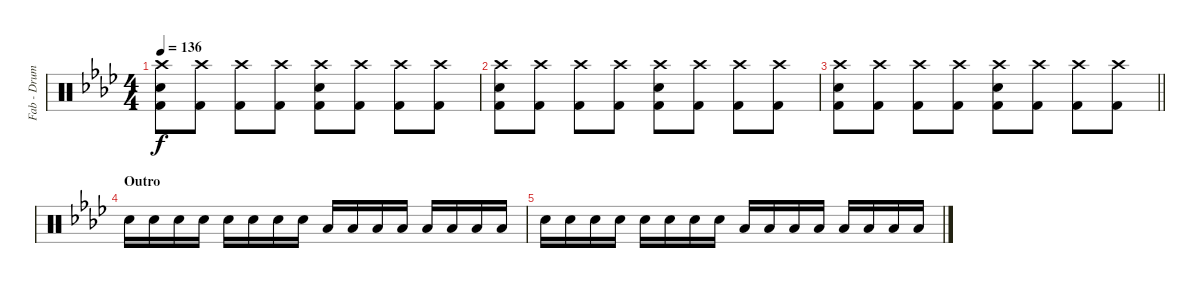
\track ("Fab - Drums MIDI" "Fab - Drum") {instrument percussion}
\staff {score}
\articulation defaults
\ts (4 4)
\tempo 136
\clef neutral
\ks ab
("Crash high (hit)" "Snare (hit) 2" "Kick (hit) 2").8{dy f} ("Crash high (hit)" "Kick (hit) 2").8 ("Crash high (hit)" "Kick (hit) 2").8 ("Crash high (hit)" "Kick (hit) 2").8 ("Crash high (hit)" "Snare (hit) 2" "Kick (hit) 2").8 ("Crash high (hit)" "Kick (hit) 2").8 ("Crash high (hit)" "Kick (hit) 2").8 ("Crash high (hit)" "Kick (hit) 2").8 |
("Crash high (hit)" "Snare (hit) 2" "Kick (hit) 2").8 ("Crash high (hit)" "Kick (hit) 2").8 ("Crash high (hit)" "Kick (hit) 2").8 ("Crash high (hit)" "Kick (hit) 2").8 ("Crash high (hit)" "Snare (hit) 2" "Kick (hit) 2").8 ("Crash high (hit)" "Kick (hit) 2").8 ("Crash high (hit)" "Kick (hit) 2").8 ("Crash high (hit)" "Kick (hit) 2").8 |
\barLineRight lightlight
("Crash high (hit)" "Snare (hit) 2" "Kick (hit) 2").8 ("Crash high (hit)" "Kick (hit) 2").8 ("Crash high (hit)" "Kick (hit) 2").8 ("Crash high (hit)" "Kick (hit) 2").8 ("Crash high (hit)" "Snare (hit) 2" "Kick (hit) 2").8 ("Crash high (hit)" "Kick (hit) 2").8 ("Crash high (hit)" "Kick (hit) 2").8 ("Crash high (hit)" "Kick (hit) 2").8 |
\section ("" "Outro")
"Snare (hit) 2".16 "Snare (hit) 2".16 "Snare (hit) 2".16 "Snare (hit) 2".16 "Snare (hit) 2".16 "Snare (hit) 2".16 "Snare (hit) 2".16 "Snare (hit) 2".16 "Low Tom (hit)".16 "Low Tom (hit)".16 "Low Tom (hit)".16 "Low Tom (hit)".16 "Low Tom (hit)".16 "Low Tom (hit)".16 "Low Tom (hit)".16 "Low Tom (hit)".16 |
"Snare (hit) 2".16 "Snare (hit) 2".16 "Snare (hit) 2".16 "Snare (hit) 2".16 "Snare (hit) 2".16 "Snare (hit) 2".16 "Snare (hit) 2".16 "Snare (hit) 2".16 "Low Tom (hit)".16 "Low Tom (hit)".16 "Low Tom (hit)".16 "Low Tom (hit)".16 "Low Tom (hit)".16 "Low Tom (hit)".16 "Low Tom (hit)".16 "Low Tom (hit)".16
